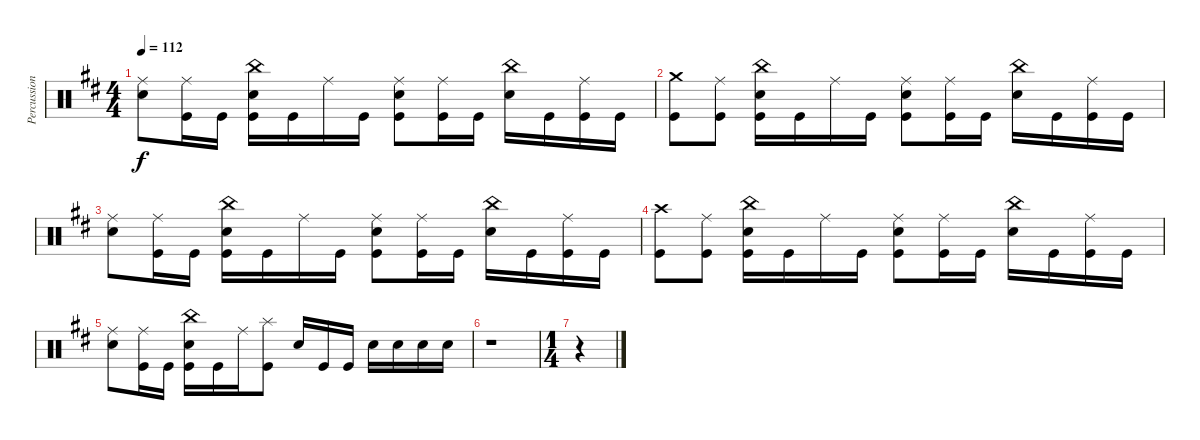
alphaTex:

\track ("Percussion" "Percussion") {instrument percussion}
\staff {score}
\articulation defaults
\ts (4 4)
\tempo 112
\clef neutral
\ks d
("Ride (middle)" "Electric Snare (hit)").8{dy f} ("Ride (middle)" "Kick (hit)").16 "Kick (hit)".16 ("China (hit)" "Electric Snare (hit)" "Kick (hit)").16 "Kick (hit)".16 "Ride (middle)".16 "Kick (hit)".16 ("Ride (middle)" "Electric Snare (hit)" "Kick (hit)").8 ("Ride (middle)" "Kick (hit)").16 "Kick (hit)".16 ("China (hit)" "Electric Snare (hit)").16 "Kick (hit)".16 ("Ride (middle)" "Kick (hit)").16 "Kick (hit)".16 |
("Crash medium (hit)" "Kick (hit)").8 ("Ride (middle)" "Kick (hit)").8 ("China (hit)" "Electric Snare (hit)" "Kick (hit)").16 "Kick (hit)".16 "Ride (middle)".16 "Kick (hit)".16 ("Ride (middle)" "Electric Snare (hit)" "Kick (hit)").8 ("Ride (middle)" "Kick (hit)").16 "Kick (hit)".16 ("China (hit)" "Electric Snare (hit)").16 "Kick (hit)".16 ("Ride (middle)" "Kick (hit)").16 "Kick (hit)".16 |
("Ride (middle)" "Electric Snare (hit)").8 ("Ride (middle)" "Kick (hit)").16 "Kick (hit)".16 ("China (hit)" "Electric Snare (hit)" "Kick (hit)").16 "Kick (hit)".16 "Ride (middle)".16 "Kick (hit)".16 ("Ride (middle)" "Electric Snare (hit)" "Kick (hit)").8 ("Ride (middle)" "Kick (hit)").16 "Kick (hit)".16 ("China (hit)" "Electric Snare (hit)").16 "Kick (hit)".16 ("Ride (middle)" "Kick (hit)").16 "Kick (hit)".16 |
("Crash high (hit)" "Kick (hit)").8 ("Ride (middle)" "Kick (hit)").8 ("China (hit)" "Electric Snare (hit)" "Kick (hit)").16 "Kick (hit)".16 "Ride (middle)".16 "Kick (hit)".16 ("Ride (middle)" "Electric Snare (hit)" "Kick (hit)").8 ("Ride (middle)" "Kick (hit)").16 "Kick (hit)".16 ("China (hit)" "Electric Snare (hit)").16 "Kick (hit)".16 ("Ride (middle)" "Kick (hit)").16 "Kick (hit)".16 |
("Ride (middle)" "Electric Snare (hit)").8 ("Ride (middle)" "Kick (hit)").16 "Kick (hit)".16 ("China (hit)" "Electric Snare (hit)" "Kick (hit)").16 "Kick (hit)".16 "Ride (middle)".16 ("Splash (hit)" "Kick (hit)").8 "Electric Snare (hit)".16 "Kick (hit)".16 "Kick (hit)".16 "Electric Snare (hit)".16 "Electric Snare (hit)".16 "Electric Snare (hit)".16 "Electric Snare (hit)".16 |
r.1 |
\ts (1 4)
r.4
